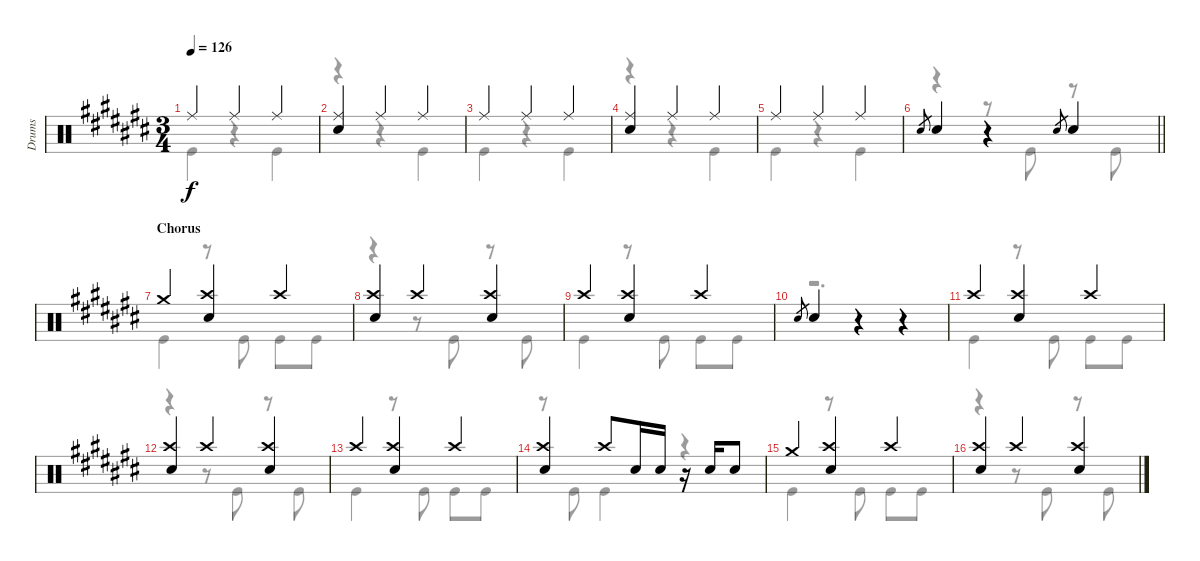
\track ("Drums" "Drums") {instrument percussion}
\staff {score}
\articulation defaults
\voice
\ts (3 4)
\tempo 126
\clef neutral
\ks c# "Ride (middle)".4{dy f} "Ride (middle)".4 "Ride (middle)".4
|
("Ride (middle)" "Electric Snare (hit)").4 "Ride (middle)".4 "Ride (middle)".4 |
"Ride (middle)".4 "Ride (middle)".4 "Ride (middle)".4 |
("Ride (middle)" "Electric Snare (hit)").4 "Ride (middle)".4 "Ride (middle)".4 |
"Ride (middle)".4 "Ride (middle)".4 "Ride (middle)".4 |
\barLineRight lightlight "Electric Snare (hit)".8{gr} "Electric Snare (hit)".4
r.4 "Electric Snare (hit)".8{gr} "Electric Snare (hit)".4 |
\section ("" "Chorus")
"Crash medium (hit)".4 ("Crash high (hit)" "Electric Snare (hit)").4 "Crash high (hit)".4 |
("Crash high (hit)" "Electric Snare (hit)").4 "Crash high (hit)".4 ("Crash high (hit)" "Electric Snare (hit)").4 |
"Crash high (hit)".4 ("Crash high (hit)" "Electric Snare (hit)").4 "Crash high (hit)".4 |
"Electric Snare (hit)".8{gr} "Electric Snare (hit)".4 r.4 r.4 |
"Crash high (hit)".4 ("Crash high (hit)" "Electric Snare (hit)").4 "Crash high (hit)".4 |
("Crash high (hit)" "Electric Snare (hit)").4 "Crash high (hit)".4 ("Crash high (hit)" "Electric Snare (hit)").4 |
"Crash high (hit)".4 ("Crash high (hit)" "Electric Snare (hit)").4 "Crash high (hit)".4 |
("Crash high (hit)" "Electric Snare (hit)").4 "Crash high (hit)".8 "Electric Snare (hit)".16 "Electric Snare (hit)".16 r.16 "Electric Snare (hit)".16 "Electric Snare (hit)".8 |
"Crash medium (hit)".4 ("Crash high (hit)" "Electric Snare (hit)").4 "Crash high (hit)".4 |
("Crash high (hit)" "Electric Snare (hit)").4 "Crash high (hit)".4 ("Crash high (hit)" "Electric Snare (hit)").4
\voice
\clef neutral
\ottava regular
\simile none
\ks c# "Kick (hit)".4{dy f}
r.4 "Kick (hit)".4 |
r.4 r.4 "Kick (hit)".4 |
"Kick (hit)".4 r.4 "Kick (hit)".4 |
r.4 r.4 "Kick (hit)".4 |
"Kick (hit)".4 r.4 "Kick (hit)".4 |
\barLineRight lightlight
r.4 r.8 "Kick (hit)".8 r.8 "Kick (hit)".8 |
"Kick (hit)".4 r.8 "Kick (hit)".8{beam split} "Kick (hit)".8 "Kick (hit)".8 |
r.4 r.8 "Kick (hit)".8{beam split} r.8 "Kick (hit)".8 |
"Kick (hit)".4 r.8 "Kick (hit)".8{beam split} "Kick (hit)".8 "Kick (hit)".8 |
r.2{d} |
"Kick (hit)".4 r.8 "Kick (hit)".8{beam split} "Kick (hit)".8 "Kick (hit)".8 |
r.4 r.8 "Kick (hit)".8{beam split} r.8 "Kick (hit)".8 |
"Kick (hit)".4 r.8 "Kick (hit)".8{beam split} "Kick (hit)".8 "Kick (hit)".8 |
r.8 "Kick (hit)".8 "Kick (hit)".4 r.4 |
"Kick (hit)".4 r.8 "Kick (hit)".8{beam split} "Kick (hit)".8 "Kick (hit)".8 |
r.4 r.8 "Kick (hit)".8{beam split} r.8 "Kick (hit)".8
